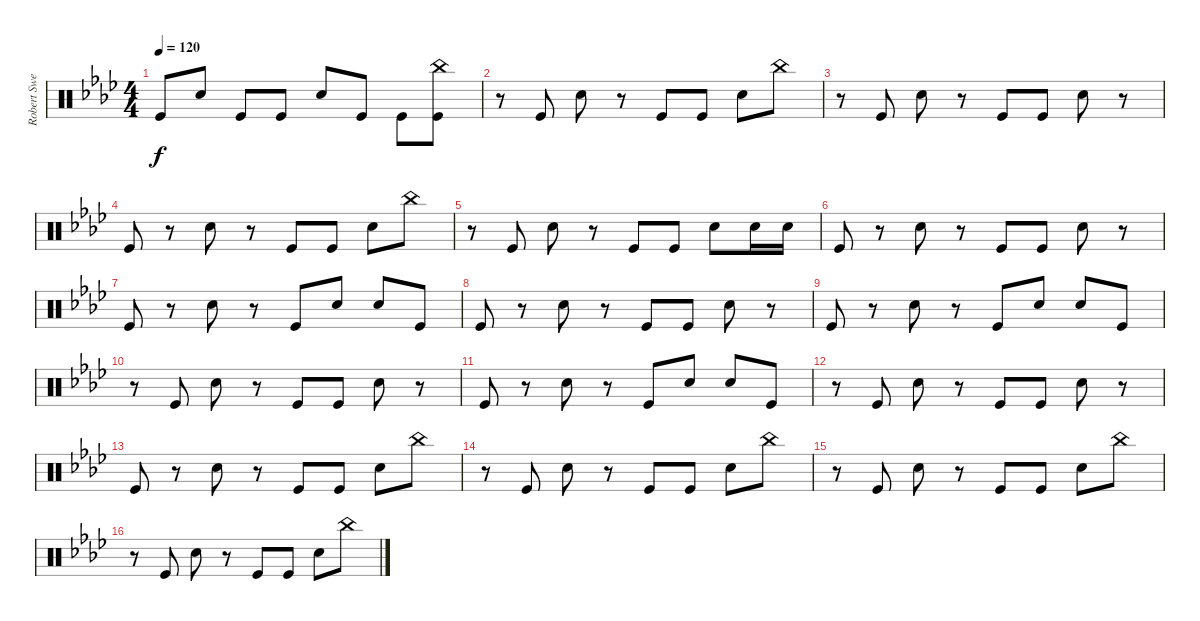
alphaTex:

\track ("Robert Sweet" "Robert Swe") {instrument percussion}
\staff {score}
\articulation defaults
\ts (4 4)
\tempo 120
\clef neutral
\ks ab "Kick (hit)".8{dy f} "Snare (hit) 2".8 "Kick (hit)".8 "Kick (hit)".8 "Snare (hit) 2".8 "Kick (hit)".8 "Kick (hit)".8
("Kick (hit)" "China (hit)").8 |
r.8 "Kick (hit)".8 "Snare (hit) 2".8 r.8 "Kick (hit)".8 "Kick (hit)".8 "Snare (hit) 2".8 "China (hit)".8 |
r.8 "Kick (hit)".8 "Snare (hit) 2".8 r.8 "Kick (hit)".8 "Kick (hit)".8 "Snare (hit) 2".8 r.8 |
"Kick (hit)".8 r.8 "Snare (hit) 2".8 r.8 "Kick (hit)".8 "Kick (hit)".8 "Snare (hit) 2".8 "China (hit)".8 |
r.8 "Kick (hit)".8 "Snare (hit) 2".8 r.8 "Kick (hit)".8 "Kick (hit)".8 "Snare (hit) 2".8 "Snare (hit) 2".16 "Snare (hit) 2".16 |
"Kick (hit)".8 r.8 "Snare (hit) 2".8 r.8 "Kick (hit)".8 "Kick (hit)".8 "Snare (hit) 2".8 r.8 |
"Kick (hit)".8 r.8 "Snare (hit) 2".8 r.8 "Kick (hit)".8 "Snare (hit) 2".8 "Snare (hit) 2".8 "Kick (hit)".8 |
"Kick (hit)".8 r.8 "Snare (hit) 2".8 r.8 "Kick (hit)".8 "Kick (hit)".8 "Snare (hit) 2".8 r.8 |
"Kick (hit)".8 r.8 "Snare (hit) 2".8 r.8 "Kick (hit)".8 "Snare (hit) 2".8 "Snare (hit) 2".8 "Kick (hit)".8 |
r.8 "Kick (hit)".8 "Snare (hit) 2".8 r.8 "Kick (hit)".8 "Kick (hit)".8 "Snare (hit) 2".8 r.8 |
"Kick (hit)".8 r.8 "Snare (hit) 2".8 r.8 "Kick (hit)".8 "Snare (hit) 2".8 "Snare (hit) 2".8 "Kick (hit)".8 |
r.8 "Kick (hit)".8 "Snare (hit) 2".8 r.8 "Kick (hit)".8 "Kick (hit)".8 "Snare (hit) 2".8 r.8 |
"Kick (hit)".8 r.8 "Snare (hit) 2".8 r.8 "Kick (hit)".8 "Kick (hit)".8 "Snare (hit) 2".8 "China (hit)".8 |
r.8 "Kick (hit)".8 "Snare (hit) 2".8 r.8 "Kick (hit)".8 "Kick (hit)".8 "Snare (hit) 2".8 "China (hit)".8 |
r.8 "Kick (hit)".8 "Snare (hit) 2".8 r.8 "Kick (hit)".8 "Kick (hit)".8 "Snare (hit) 2".8 "China (hit)".8 |
r.8 "Kick (hit)".8 "Snare (hit) 2".8 r.8 "Kick (hit)".8 "Kick (hit)".8 "Snare (hit) 2".8 "China (hit)".8
